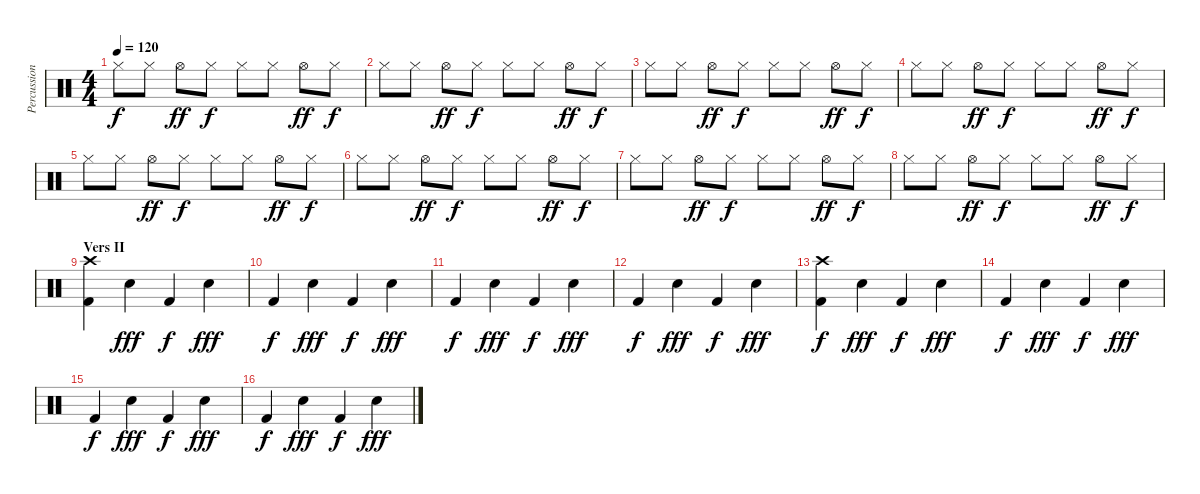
\track ("Percussion" "Percussion") {instrument percussion}
\staff {score}
\articulation defaults
\ts (4 4)
\tempo 120
\clef neutral
\ks c "Hi-Hat (closed)".8{dy f} "Hi-Hat (closed)".8 "Hi-Hat (open)".8{dy ff} "Hi-Hat (closed)".8{dy f} "Hi-Hat (closed)".8 "Hi-Hat (closed)".8 "Hi-Hat (open)".8{dy ff} "Hi-Hat (closed)".8{dy f}
|
"Hi-Hat (closed)".8 "Hi-Hat (closed)".8 "Hi-Hat (open)".8{dy ff} "Hi-Hat (closed)".8{dy f} "Hi-Hat (closed)".8 "Hi-Hat (closed)".8 "Hi-Hat (open)".8{dy ff} "Hi-Hat (closed)".8{dy f} |
"Hi-Hat (closed)".8 "Hi-Hat (closed)".8 "Hi-Hat (open)".8{dy ff} "Hi-Hat (closed)".8{dy f} "Hi-Hat (closed)".8 "Hi-Hat (closed)".8 "Hi-Hat (open)".8{dy ff} "Hi-Hat (closed)".8{dy f} |
"Hi-Hat (closed)".8 "Hi-Hat (closed)".8 "Hi-Hat (open)".8{dy ff} "Hi-Hat (closed)".8{dy f} "Hi-Hat (closed)".8 "Hi-Hat (closed)".8 "Hi-Hat (open)".8{dy ff} "Hi-Hat (closed)".8{dy f} |
"Hi-Hat (closed)".8 "Hi-Hat (closed)".8 "Hi-Hat (open)".8{dy ff} "Hi-Hat (closed)".8{dy f} "Hi-Hat (closed)".8 "Hi-Hat (closed)".8 "Hi-Hat (open)".8{dy ff} "Hi-Hat (closed)".8{dy f} |
"Hi-Hat (closed)".8 "Hi-Hat (closed)".8 "Hi-Hat (open)".8{dy ff} "Hi-Hat (closed)".8{dy f} "Hi-Hat (closed)".8 "Hi-Hat (closed)".8 "Hi-Hat (open)".8{dy ff} "Hi-Hat (closed)".8{dy f} |
"Hi-Hat (closed)".8 "Hi-Hat (closed)".8 "Hi-Hat (open)".8{dy ff} "Hi-Hat (closed)".8{dy f} "Hi-Hat (closed)".8 "Hi-Hat (closed)".8 "Hi-Hat (open)".8{dy ff} "Hi-Hat (closed)".8{dy f} |
"Hi-Hat (closed)".8 "Hi-Hat (closed)".8 "Hi-Hat (open)".8{dy ff} "Hi-Hat (closed)".8{dy f} "Hi-Hat (closed)".8 "Hi-Hat (closed)".8 "Hi-Hat (open)".8{dy ff} "Hi-Hat (closed)".8{dy f} |
\section ("" "Vers II")
("Crash high (hit)" "Kick (hit) 2").4 "Electric Snare (hit)".4{dy fff} "Kick (hit) 2".4{dy f} "Electric Snare (hit)".4{dy fff} |
"Kick (hit) 2".4{dy f} "Electric Snare (hit)".4{dy fff} "Kick (hit) 2".4{dy f} "Electric Snare (hit)".4{dy fff} |
"Kick (hit) 2".4{dy f} "Electric Snare (hit)".4{dy fff} "Kick (hit) 2".4{dy f} "Electric Snare (hit)".4{dy fff} |
"Kick (hit) 2".4{dy f} "Electric Snare (hit)".4{dy fff} "Kick (hit) 2".4{dy f} "Electric Snare (hit)".4{dy fff} |
("Crash high (hit)" "Kick (hit) 2").4{dy f} "Electric Snare (hit)".4{dy fff} "Kick (hit) 2".4{dy f} "Electric Snare (hit)".4{dy fff} |
"Kick (hit) 2".4{dy f} "Electric Snare (hit)".4{dy fff} "Kick (hit) 2".4{dy f} "Electric Snare (hit)".4{dy fff} |
"Kick (hit) 2".4{dy f} "Electric Snare (hit)".4{dy fff} "Kick (hit) 2".4{dy f} "Electric Snare (hit)".4{dy fff} |
"Kick (hit) 2".4{dy f} "Electric Snare (hit)".4{dy fff} "Kick (hit) 2".4{dy f} "Electric Snare (hit)".4{dy fff}
